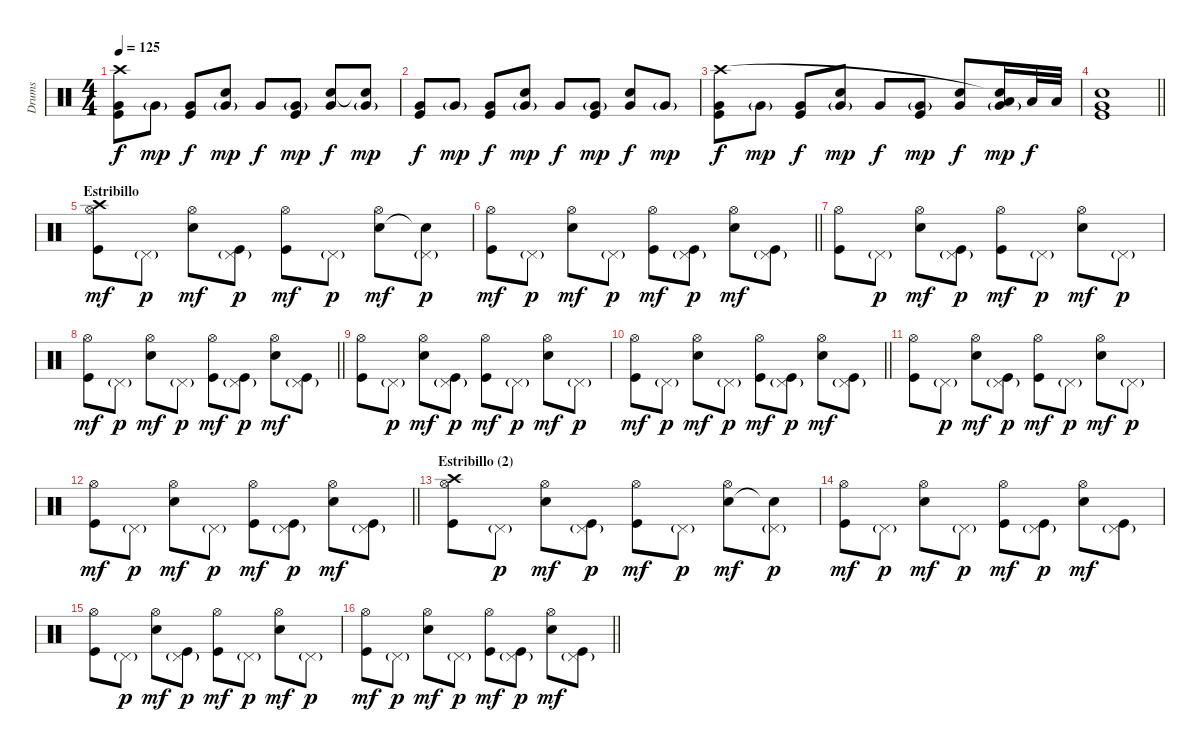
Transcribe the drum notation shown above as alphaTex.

\track ("Drums" "Drums") {instrument percussion}
\staff {score}
\articulation defaults
\ts (4 4)
\tempo 125
\clef neutral
\ks c
("Very Low Tom (hit)" "Kick (hit)" "Crash high (hit)").8{dy f} "Very Low Tom (hit)"{g}.8{dy mp} ("Very Low Tom (hit)" "Kick (hit)").8{dy f} ("Very Low Tom (hit)"{g} "Electric Snare (hit)").8{dy mp} "Very Low Tom (hit)".8{dy f} ("Very Low Tom (hit)"{g} "Kick (hit)").8{dy mp} ("Very Low Tom (hit)" "Electric Snare (hit)").8{dy f} ("Very Low Tom (hit)"{g} "Snare (hit)"{t}).8{dy mp} |
("Very Low Tom (hit)" "Kick (hit)").8{dy f} "Very Low Tom (hit)"{g}.8{dy mp} ("Very Low Tom (hit)" "Kick (hit)").8{dy f} ("Very Low Tom (hit)"{g} "Electric Snare (hit)").8{dy mp} "Very Low Tom (hit)".8{dy f} ("Very Low Tom (hit)"{g} "Kick (hit)").8{dy mp} ("Very Low Tom (hit)" "Electric Snare (hit)").8{dy f} "Very Low Tom (hit)"{g}.8{dy mp} |
("Very Low Tom (hit)" "Kick (hit)" "Crash high (hit)").8{dy f} "Very Low Tom (hit)"{g}.8{dy mp} ("Very Low Tom (hit)" "Kick (hit)").8{dy f} ("Very Low Tom (hit)"{g} "Electric Snare (hit)").8{dy mp} "Very Low Tom (hit)".8{dy f} ("Very Low Tom (hit)"{g} "Kick (hit)").8{dy mp} ("Very Low Tom (hit)" "Electric Snare (hit)").8{dy f} ("Very Low Tom (hit)"{g} "Low Tom (hit)" "Snare (hit)"{t}).16{dy mp} "Low Tom (hit)".32{dy f} "Low Tom (hit)".32 |
\barLineRight lightlight
("Very Low Tom (hit)" "Electric Snare (hit)" "Kick (hit)").1 |
\section ("" "Estribillo")
("Hi-Hat (open)" "Kick (hit)" "Crash high (hit)").8{dy mf} "Pedal Hi-Hat (hit)"{g}.8{dy p} ("Hi-Hat (open)" "Electric Snare (hit)").8{dy mf} ("Pedal Hi-Hat (hit)"{g} "Kick (hit)").8{dy p} ("Hi-Hat (open)" "Kick (hit)").8{dy mf} "Pedal Hi-Hat (hit)"{g}.8{dy p} ("Hi-Hat (open)" "Electric Snare (hit)").8{dy mf} ("Pedal Hi-Hat (hit)"{g} "Snare (hit)"{t}).8{dy p} |
\barLineRight lightlight
("Hi-Hat (open)" "Kick (hit)").8{dy mf} "Pedal Hi-Hat (hit)"{g}.8{dy p} ("Hi-Hat (open)" "Electric Snare (hit)").8{dy mf} "Pedal Hi-Hat (hit)"{g}.8{dy p} ("Hi-Hat (open)" "Kick (hit)").8{dy mf} ("Pedal Hi-Hat (hit)"{g} "Kick (hit)").8{dy p} ("Hi-Hat (open)" "Electric Snare (hit)").8{dy mf} ("Pedal Hi-Hat (hit)"{g} "Kick (hit)").8 |
("Hi-Hat (open)" "Kick (hit)").8 "Pedal Hi-Hat (hit)"{g}.8{dy p} ("Hi-Hat (open)" "Electric Snare (hit)").8{dy mf} ("Pedal Hi-Hat (hit)"{g} "Kick (hit)").8{dy p} ("Hi-Hat (open)" "Kick (hit)").8{dy mf} "Pedal Hi-Hat (hit)"{g}.8{dy p} ("Hi-Hat (open)" "Electric Snare (hit)").8{dy mf} "Pedal Hi-Hat (hit)"{g}.8{dy p} |
\barLineRight lightlight
("Hi-Hat (open)" "Kick (hit)").8{dy mf} "Pedal Hi-Hat (hit)"{g}.8{dy p} ("Hi-Hat (open)" "Electric Snare (hit)").8{dy mf} "Pedal Hi-Hat (hit)"{g}.8{dy p} ("Hi-Hat (open)" "Kick (hit)").8{dy mf} ("Pedal Hi-Hat (hit)"{g} "Kick (hit)").8{dy p} ("Hi-Hat (open)" "Electric Snare (hit)").8{dy mf} ("Pedal Hi-Hat (hit)"{g} "Kick (hit)").8 |
("Hi-Hat (open)" "Kick (hit)").8 "Pedal Hi-Hat (hit)"{g}.8{dy p} ("Hi-Hat (open)" "Electric Snare (hit)").8{dy mf} ("Pedal Hi-Hat (hit)"{g} "Kick (hit)").8{dy p} ("Hi-Hat (open)" "Kick (hit)").8{dy mf} "Pedal Hi-Hat (hit)"{g}.8{dy p} ("Hi-Hat (open)" "Electric Snare (hit)").8{dy mf} "Pedal Hi-Hat (hit)"{g}.8{dy p} |
\barLineRight lightlight
("Hi-Hat (open)" "Kick (hit)").8{dy mf} "Pedal Hi-Hat (hit)"{g}.8{dy p} ("Hi-Hat (open)" "Electric Snare (hit)").8{dy mf} "Pedal Hi-Hat (hit)"{g}.8{dy p} ("Hi-Hat (open)" "Kick (hit)").8{dy mf} ("Pedal Hi-Hat (hit)"{g} "Kick (hit)").8{dy p} ("Hi-Hat (open)" "Electric Snare (hit)").8{dy mf} ("Pedal Hi-Hat (hit)"{g} "Kick (hit)").8 |
("Hi-Hat (open)" "Kick (hit)").8 "Pedal Hi-Hat (hit)"{g}.8{dy p} ("Hi-Hat (open)" "Electric Snare (hit)").8{dy mf} ("Pedal Hi-Hat (hit)"{g} "Kick (hit)").8{dy p} ("Hi-Hat (open)" "Kick (hit)").8{dy mf} "Pedal Hi-Hat (hit)"{g}.8{dy p} ("Hi-Hat (open)" "Electric Snare (hit)").8{dy mf} "Pedal Hi-Hat (hit)"{g}.8{dy p} |
\barLineRight lightlight
("Hi-Hat (open)" "Kick (hit)").8{dy mf} "Pedal Hi-Hat (hit)"{g}.8{dy p} ("Hi-Hat (open)" "Electric Snare (hit)").8{dy mf} "Pedal Hi-Hat (hit)"{g}.8{dy p} ("Hi-Hat (open)" "Kick (hit)").8{dy mf} ("Pedal Hi-Hat (hit)"{g} "Kick (hit)").8{dy p} ("Hi-Hat (open)" "Electric Snare (hit)").8{dy mf} ("Pedal Hi-Hat (hit)"{g} "Kick (hit)").8 |
\section ("" "Estribillo (2)")
("Hi-Hat (open)" "Kick (hit)" "Crash high (hit)").8 "Pedal Hi-Hat (hit)"{g}.8{dy p} ("Hi-Hat (open)" "Electric Snare (hit)").8{dy mf} ("Pedal Hi-Hat (hit)"{g} "Kick (hit)").8{dy p} ("Hi-Hat (open)" "Kick (hit)").8{dy mf} "Pedal Hi-Hat (hit)"{g}.8{dy p} ("Hi-Hat (open)" "Electric Snare (hit)").8{dy mf} ("Pedal Hi-Hat (hit)"{g} "Snare (hit)"{t}).8{dy p} |
("Hi-Hat (open)" "Kick (hit)").8{dy mf} "Pedal Hi-Hat (hit)"{g}.8{dy p} ("Hi-Hat (open)" "Electric Snare (hit)").8{dy mf} "Pedal Hi-Hat (hit)"{g}.8{dy p} ("Hi-Hat (open)" "Kick (hit)").8{dy mf} ("Pedal Hi-Hat (hit)"{g} "Kick (hit)").8{dy p} ("Hi-Hat (open)" "Electric Snare (hit)").8{dy mf} ("Pedal Hi-Hat (hit)"{g} "Kick (hit)").8 |
("Hi-Hat (open)" "Kick (hit)").8 "Pedal Hi-Hat (hit)"{g}.8{dy p} ("Hi-Hat (open)" "Electric Snare (hit)").8{dy mf} ("Pedal Hi-Hat (hit)"{g} "Kick (hit)").8{dy p} ("Hi-Hat (open)" "Kick (hit)").8{dy mf} "Pedal Hi-Hat (hit)"{g}.8{dy p} ("Hi-Hat (open)" "Electric Snare (hit)").8{dy mf} "Pedal Hi-Hat (hit)"{g}.8{dy p} |
\barLineRight lightlight
("Hi-Hat (open)" "Kick (hit)").8{dy mf} "Pedal Hi-Hat (hit)"{g}.8{dy p} ("Hi-Hat (open)" "Electric Snare (hit)").8{dy mf} "Pedal Hi-Hat (hit)"{g}.8{dy p} ("Hi-Hat (open)" "Kick (hit)").8{dy mf} ("Pedal Hi-Hat (hit)"{g} "Kick (hit)").8{dy p} ("Hi-Hat (open)" "Electric Snare (hit)").8{dy mf} ("Pedal Hi-Hat (hit)"{g} "Kick (hit)").8
